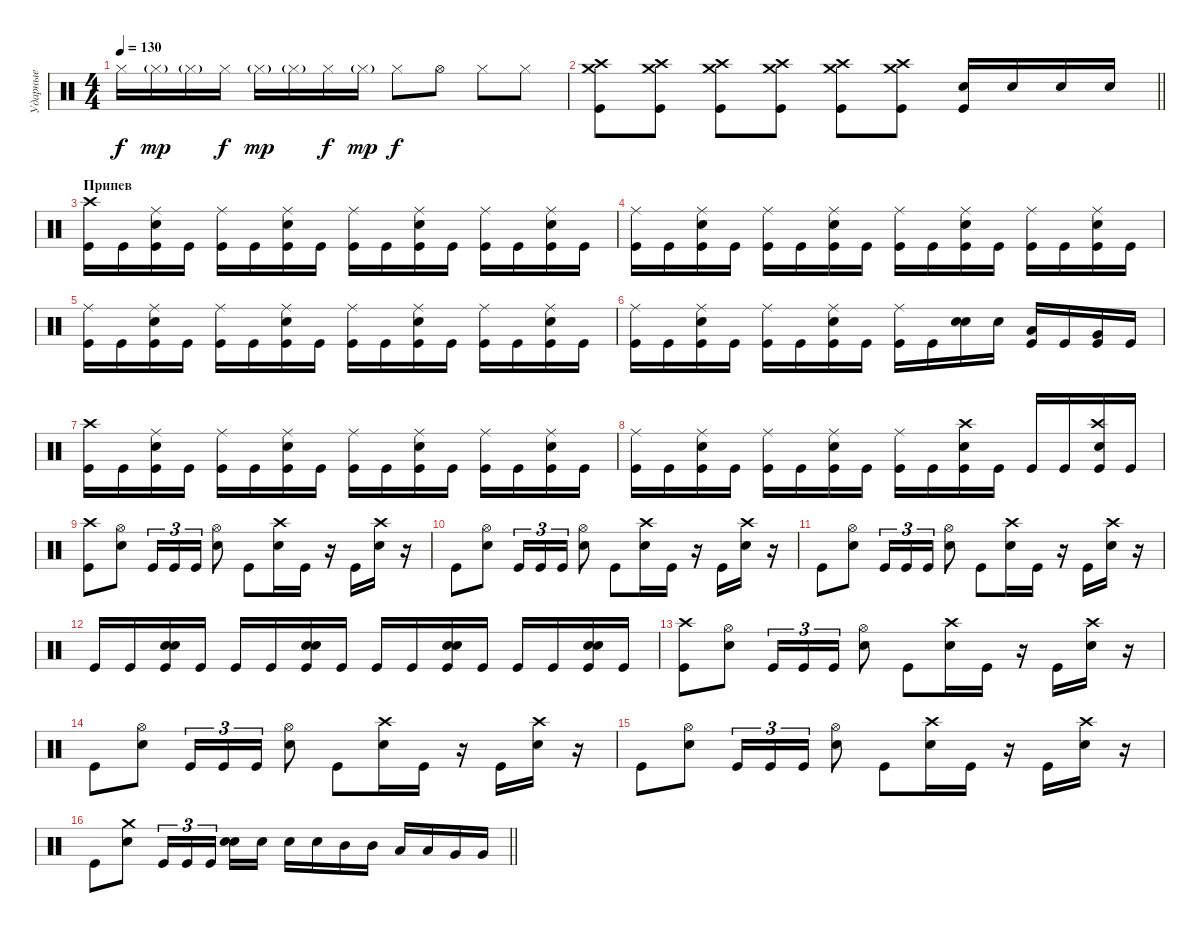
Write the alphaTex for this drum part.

\track ("Ударные" "Ударные") {instrument percussion}
\staff {score}
\articulation defaults
\ts (4 4)
\tempo 130
\clef neutral
\ks c "Hi-Hat (closed)".16{dy f} "Hi-Hat (closed)"{g}.16{dy mp} "Hi-Hat (closed)"{g}.16 "Hi-Hat (closed)".16{dy f} "Hi-Hat (closed)"{g}.16{dy mp} "Hi-Hat (closed)"{g}.16 "Hi-Hat (closed)".16{dy f} "Hi-Hat (closed)"{g}.16{dy mp} "Hi-Hat (closed)".8{dy f} "Hi-Hat (open)".8 "Hi-Hat (closed)".8 "Hi-Hat (closed)".8
|
\barLineRight lightlight
("Kick (hit)" "Crash medium (hit)" "Crash high (hit)").8 ("Kick (hit)" "Crash medium (hit)" "Crash high (hit)").8 ("Kick (hit)" "Crash medium (hit)" "Crash high (hit)").8 ("Kick (hit)" "Crash medium (hit)" "Crash high (hit)").8 ("Kick (hit)" "Crash medium (hit)" "Crash high (hit)").8 ("Kick (hit)" "Crash medium (hit)" "Crash high (hit)").8 ("Kick (hit)" "Snare (hit) 2").16 "Snare (hit) 2".16 "Snare (hit) 2".16 "Snare (hit) 2".16 |
\section ("" "Припев")
("Kick (hit)" "Crash high (hit)").16 "Kick (hit)".16 ("Kick (hit)" "Snare (hit) 2" "Ride (middle)").16 "Kick (hit)".16 ("Kick (hit)" "Ride (middle)").16 "Kick (hit)".16 ("Kick (hit)" "Snare (hit) 2" "Ride (middle)").16 "Kick (hit)".16 ("Kick (hit)" "Ride (middle)").16 "Kick (hit)".16 ("Kick (hit)" "Snare (hit) 2" "Ride (middle)").16 "Kick (hit)".16 ("Kick (hit)" "Ride (middle)").16 "Kick (hit)".16 ("Kick (hit)" "Snare (hit) 2" "Ride (middle)").16 "Kick (hit)".16 |
("Kick (hit)" "Ride (middle)").16 "Kick (hit)".16 ("Kick (hit)" "Snare (hit) 2" "Ride (middle)").16 "Kick (hit)".16 ("Kick (hit)" "Ride (middle)").16 "Kick (hit)".16 ("Kick (hit)" "Snare (hit) 2" "Ride (middle)").16 "Kick (hit)".16 ("Kick (hit)" "Ride (middle)").16 "Kick (hit)".16 ("Kick (hit)" "Snare (hit) 2" "Ride (middle)").16 "Kick (hit)".16 ("Kick (hit)" "Ride (middle)").16 "Kick (hit)".16 ("Kick (hit)" "Snare (hit) 2" "Ride (middle)").16 "Kick (hit)".16 |
("Kick (hit)" "Ride (middle)").16 "Kick (hit)".16 ("Kick (hit)" "Snare (hit) 2" "Ride (middle)").16 "Kick (hit)".16 ("Kick (hit)" "Ride (middle)").16 "Kick (hit)".16 ("Kick (hit)" "Snare (hit) 2" "Ride (middle)").16 "Kick (hit)".16 ("Kick (hit)" "Ride (middle)").16 "Kick (hit)".16 ("Kick (hit)" "Snare (hit) 2" "Ride (middle)").16 "Kick (hit)".16 ("Kick (hit)" "Ride (middle)").16 "Kick (hit)".16 ("Kick (hit)" "Snare (hit) 2" "Ride (middle)").16 "Kick (hit)".16 |
("Kick (hit)" "Ride (middle)").16 "Kick (hit)".16 ("Kick (hit)" "Snare (hit) 2" "Ride (middle)").16 "Kick (hit)".16 ("Kick (hit)" "Ride (middle)").16 "Kick (hit)".16 ("Kick (hit)" "Snare (hit) 2" "Ride (middle)").16 "Kick (hit)".16 ("Kick (hit)" "Ride (middle)").16 "Kick (hit)".16 ("Snare (hit) 2" "Snare (hit) 2").16{bd 60} "Snare (hit) 2".16 ("Kick (hit)" "Low Tom (hit)").16 "Kick (hit)".16 ("Kick (hit)" "Very Low Tom (hit)").16 "Kick (hit)".16 |
("Kick (hit)" "Crash high (hit)").16 "Kick (hit)".16 ("Kick (hit)" "Snare (hit) 2" "Ride (middle)").16 "Kick (hit)".16 ("Kick (hit)" "Ride (middle)").16 "Kick (hit)".16 ("Kick (hit)" "Snare (hit) 2" "Ride (middle)").16 "Kick (hit)".16 ("Kick (hit)" "Ride (middle)").16 "Kick (hit)".16 ("Kick (hit)" "Snare (hit) 2" "Ride (middle)").16 "Kick (hit)".16 ("Kick (hit)" "Ride (middle)").16 "Kick (hit)".16 ("Kick (hit)" "Snare (hit) 2" "Ride (middle)").16 "Kick (hit)".16 |
("Kick (hit)" "Ride (middle)").16 "Kick (hit)".16 ("Kick (hit)" "Snare (hit) 2" "Ride (middle)").16 "Kick (hit)".16 ("Kick (hit)" "Ride (middle)").16 "Kick (hit)".16 ("Kick (hit)" "Snare (hit) 2" "Ride (middle)").16 "Kick (hit)".16 ("Kick (hit)" "Ride (middle)").16 "Kick (hit)".16 ("Kick (hit)" "Snare (hit) 2" "Crash high (hit)").16 "Kick (hit)".16 "Kick (hit)".16 "Kick (hit)".16 ("Kick (hit)" "Snare (hit) 2" "Crash high (hit)").16 "Kick (hit)".16 |
("Kick (hit)" "Crash high (hit)").8 ("Snare (hit) 2" "Hi-Hat (open)").8 "Kick (hit)".16{tu (3 2)} "Kick (hit)".16{tu (3 2)} "Kick (hit)".16{tu (3 2)} ("Snare (hit) 2" "Hi-Hat (open)").8 "Kick (hit)".8 ("Snare (hit) 2" "Crash high (hit)").16 "Kick (hit)".16 r.16 "Kick (hit)".16 ("Snare (hit) 2" "Crash high (hit)").16 r.16 |
"Kick (hit)".8 ("Snare (hit) 2" "Hi-Hat (open)").8 "Kick (hit)".16{tu (3 2)} "Kick (hit)".16{tu (3 2)} "Kick (hit)".16{tu (3 2)} ("Snare (hit) 2" "Hi-Hat (open)").8 "Kick (hit)".8 ("Snare (hit) 2" "Crash high (hit)").16 "Kick (hit)".16 r.16 "Kick (hit)".16 ("Snare (hit) 2" "Crash high (hit)").16 r.16 |
"Kick (hit)".8 ("Snare (hit) 2" "Hi-Hat (open)").8 "Kick (hit)".16{tu (3 2)} "Kick (hit)".16{tu (3 2)} "Kick (hit)".16{tu (3 2)} ("Snare (hit) 2" "Hi-Hat (open)").8 "Kick (hit)".8 ("Snare (hit) 2" "Crash high (hit)").16 "Kick (hit)".16 r.16 "Kick (hit)".16 ("Snare (hit) 2" "Crash high (hit)").16 r.16 |
"Kick (hit)".16 "Kick (hit)".16 ("Kick (hit)" "Snare (hit) 2" "Snare (hit) 2").16{bd 60} "Kick (hit)".16 "Kick (hit)".16 "Kick (hit)".16 ("Kick (hit)" "Snare (hit) 2" "Snare (hit) 2").16{bd 60} "Kick (hit)".16 "Kick (hit)".16 "Kick (hit)".16 ("Kick (hit)" "Snare (hit) 2" "Snare (hit) 2").16{bd 60} "Kick (hit)".16 "Kick (hit)".16 "Kick (hit)".16 ("Kick (hit)" "Snare (hit) 2" "Snare (hit) 2").16{bd 60} "Kick (hit)".16 |
("Kick (hit)" "Crash high (hit)").8 ("Snare (hit) 2" "Hi-Hat (open)").8 "Kick (hit)".16{tu (3 2)} "Kick (hit)".16{tu (3 2)} "Kick (hit)".16{tu (3 2)} ("Snare (hit) 2" "Hi-Hat (open)").8 "Kick (hit)".8 ("Snare (hit) 2" "Crash high (hit)").16 "Kick (hit)".16 r.16 "Kick (hit)".16 ("Snare (hit) 2" "Crash high (hit)").16 r.16 |
"Kick (hit)".8 ("Snare (hit) 2" "Hi-Hat (open)").8 "Kick (hit)".16{tu (3 2)} "Kick (hit)".16{tu (3 2)} "Kick (hit)".16{tu (3 2)} ("Snare (hit) 2" "Hi-Hat (open)").8 "Kick (hit)".8 ("Snare (hit) 2" "Crash high (hit)").16 "Kick (hit)".16 r.16 "Kick (hit)".16 ("Snare (hit) 2" "Crash high (hit)").16 r.16 |
"Kick (hit)".8 ("Snare (hit) 2" "Hi-Hat (open)").8 "Kick (hit)".16{tu (3 2)} "Kick (hit)".16{tu (3 2)} "Kick (hit)".16{tu (3 2)} ("Snare (hit) 2" "Hi-Hat (open)").8 "Kick (hit)".8 ("Snare (hit) 2" "Crash high (hit)").16 "Kick (hit)".16 r.16 "Kick (hit)".16 ("Snare (hit) 2" "Crash high (hit)").16 r.16 |
\barLineRight lightlight "Kick (hit)".8
("Snare (hit) 2" "Crash medium (hit)").8 "Kick (hit)".16{tu (3 2)} "Kick (hit)".16{tu (3 2)} "Kick (hit)".16{tu (3 2) beam splitsecondary} ("Snare (hit) 2" "Snare (hit) 2").16{bd 60} "Snare (hit) 2".16 "Snare (hit) 2".16 "Snare (hit) 2".16 "Mid Tom (hit)".16 "Mid Tom (hit)".16 "Low Tom (hit)".16 "Low Tom (hit)".16 "Very Low Tom (hit)".16 "Very Low Tom (hit)".16
